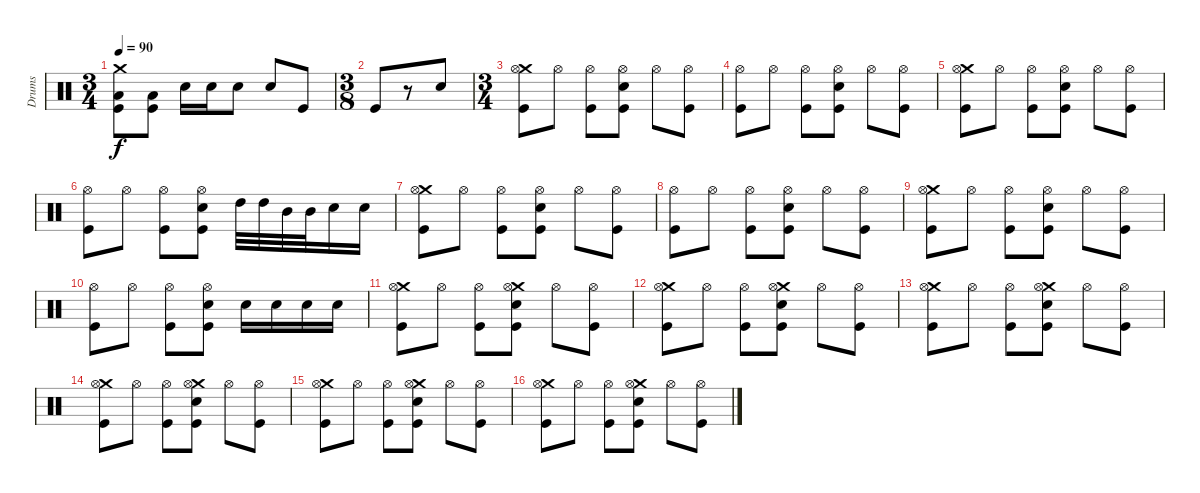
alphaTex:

\track ("Drums" "Drums") {instrument percussion}
\staff {score}
\articulation defaults
\ts (3 4)
\tempo 90
\clef neutral
\ks c
("Crash medium (hit)" "Low Tom (hit)" "Kick (hit)").8{dy f} ("Low Tom (hit)" "Kick (hit)").8 "Snare (hit) 2".16 "Snare (hit) 2".16 "Snare (hit) 2".8 "Snare (hit) 2".8 "Kick (hit)".8 |
\ts (3 8)
"Kick (hit)".8 r.8 "Snare (hit) 2".8 |
\ts (3 4)
("Crash medium (hit)" "Hi-Hat (open)" "Kick (hit)").8 "Hi-Hat (open)".8 ("Hi-Hat (open)" "Kick (hit)").8 ("Hi-Hat (open)" "Snare (hit) 2" "Kick (hit)").8 "Hi-Hat (open)".8 ("Hi-Hat (open)" "Kick (hit)").8 |
("Hi-Hat (open)" "Kick (hit)").8 "Hi-Hat (open)".8 ("Hi-Hat (open)" "Kick (hit)").8 ("Hi-Hat (open)" "Snare (hit) 2" "Kick (hit)").8 "Hi-Hat (open)".8 ("Hi-Hat (open)" "Kick (hit)").8 |
("Crash medium (hit)" "Hi-Hat (open)" "Kick (hit)").8 "Hi-Hat (open)".8 ("Hi-Hat (open)" "Kick (hit)").8 ("Hi-Hat (open)" "Snare (hit) 2" "Kick (hit)").8 "Hi-Hat (open)".8 ("Hi-Hat (open)" "Kick (hit)").8 |
("Hi-Hat (open)" "Kick (hit)").8 "Hi-Hat (open)".8 ("Hi-Hat (open)" "Kick (hit)").8 ("Hi-Hat (open)" "Snare (hit) 2" "Kick (hit)").8 "High Tom (hit)".32 "High Tom (hit)".32 "Mid Tom (hit)".32 "Mid Tom (hit)".32 "Snare (hit) 2".16 "Snare (hit) 2".16 |
("Crash medium (hit)" "Hi-Hat (open)" "Kick (hit)").8 "Hi-Hat (open)".8 ("Hi-Hat (open)" "Kick (hit)").8 ("Hi-Hat (open)" "Snare (hit) 2" "Kick (hit)").8 "Hi-Hat (open)".8 ("Hi-Hat (open)" "Kick (hit)").8 |
("Hi-Hat (open)" "Kick (hit)").8 "Hi-Hat (open)".8 ("Hi-Hat (open)" "Kick (hit)").8 ("Hi-Hat (open)" "Snare (hit) 2" "Kick (hit)").8 "Hi-Hat (open)".8 ("Hi-Hat (open)" "Kick (hit)").8 |
("Crash medium (hit)" "Hi-Hat (open)" "Kick (hit)").8 "Hi-Hat (open)".8 ("Hi-Hat (open)" "Kick (hit)").8 ("Hi-Hat (open)" "Snare (hit) 2" "Kick (hit)").8 "Hi-Hat (open)".8 ("Hi-Hat (open)" "Kick (hit)").8 |
("Hi-Hat (open)" "Kick (hit)").8 "Hi-Hat (open)".8 ("Hi-Hat (open)" "Kick (hit)").8 ("Hi-Hat (open)" "Snare (hit) 2" "Kick (hit)").8 "Snare (hit) 2".16 "Snare (hit) 2".16 "Snare (hit) 2".16 "Snare (hit) 2".16 |
("Crash medium (hit)" "Hi-Hat (open)" "Kick (hit)").8 "Hi-Hat (open)".8 ("Hi-Hat (open)" "Kick (hit)").8 ("Crash medium (hit)" "Hi-Hat (open)" "Snare (hit) 2" "Kick (hit)").8 "Hi-Hat (open)".8 ("Hi-Hat (open)" "Kick (hit)").8 |
("Crash medium (hit)" "Hi-Hat (open)" "Kick (hit)").8 "Hi-Hat (open)".8 ("Hi-Hat (open)" "Kick (hit)").8 ("Crash medium (hit)" "Hi-Hat (open)" "Snare (hit) 2" "Kick (hit)").8 "Hi-Hat (open)".8 ("Hi-Hat (open)" "Kick (hit)").8 |
("Crash medium (hit)" "Hi-Hat (open)" "Kick (hit)").8 "Hi-Hat (open)".8 ("Hi-Hat (open)" "Kick (hit)").8 ("Crash medium (hit)" "Hi-Hat (open)" "Snare (hit) 2" "Kick (hit)").8 "Hi-Hat (open)".8 ("Hi-Hat (open)" "Kick (hit)").8 |
("Crash medium (hit)" "Hi-Hat (open)" "Kick (hit)").8 "Hi-Hat (open)".8 ("Hi-Hat (open)" "Kick (hit)").8 ("Crash medium (hit)" "Hi-Hat (open)" "Snare (hit) 2" "Kick (hit)").8 "Hi-Hat (open)".8 ("Hi-Hat (open)" "Kick (hit)").8 |
("Crash medium (hit)" "Hi-Hat (open)" "Kick (hit)").8 "Hi-Hat (open)".8 ("Hi-Hat (open)" "Kick (hit)").8 ("Crash medium (hit)" "Hi-Hat (open)" "Snare (hit) 2" "Kick (hit)").8 "Hi-Hat (open)".8 ("Hi-Hat (open)" "Kick (hit)").8 |
("Crash medium (hit)" "Hi-Hat (open)" "Kick (hit)").8 "Hi-Hat (open)".8 ("Hi-Hat (open)" "Kick (hit)").8 ("Crash medium (hit)" "Hi-Hat (open)" "Snare (hit) 2" "Kick (hit)").8 "Hi-Hat (open)".8 ("Hi-Hat (open)" "Kick (hit)").8
